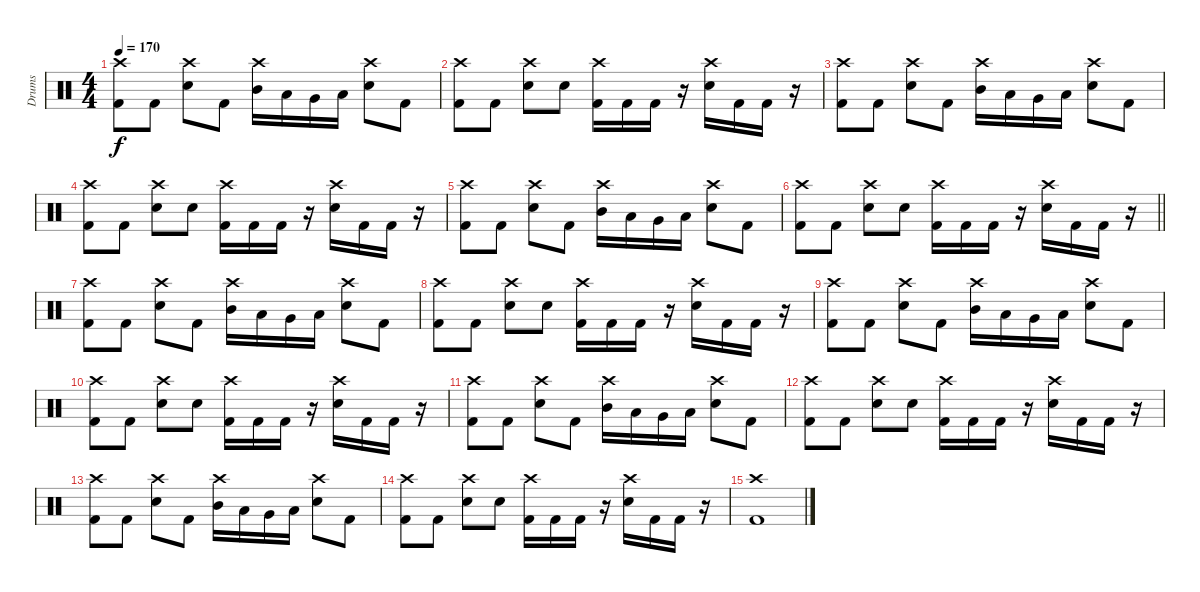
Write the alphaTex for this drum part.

\track ("Drums" "Drums") {instrument percussion}
\staff {score}
\articulation defaults
\ts (4 4)
\tempo 170
\clef neutral
\ks c
("Crash high (hit)" "Kick (hit) 2").8{dy f} "Kick (hit) 2".8 ("Crash high (hit)" "Electric Snare (hit)").8 "Kick (hit) 2".8 ("Crash high (hit)" "Mid Tom (hit)").16 "Low Tom (hit)".16 "Very Low Tom (hit)".16 "Low Tom (hit)".16 ("Crash high (hit)" "Electric Snare (hit)").8 "Kick (hit) 2".8 |
("Crash high (hit)" "Kick (hit) 2").8 "Kick (hit) 2".8 ("Crash high (hit)" "Electric Snare (hit)").8 "Electric Snare (hit)".8 ("Crash high (hit)" "Kick (hit) 2").16 "Kick (hit) 2".16 "Kick (hit) 2".16 r.16 ("Crash high (hit)" "Electric Snare (hit)").16 "Kick (hit) 2".16 "Kick (hit) 2".16 r.16 |
("Crash high (hit)" "Kick (hit) 2").8 "Kick (hit) 2".8 ("Crash high (hit)" "Electric Snare (hit)").8 "Kick (hit) 2".8 ("Crash high (hit)" "Mid Tom (hit)").16 "Low Tom (hit)".16 "Very Low Tom (hit)".16 "Low Tom (hit)".16 ("Crash high (hit)" "Electric Snare (hit)").8 "Kick (hit) 2".8 |
("Crash high (hit)" "Kick (hit) 2").8 "Kick (hit) 2".8 ("Crash high (hit)" "Electric Snare (hit)").8 "Electric Snare (hit)".8 ("Crash high (hit)" "Kick (hit) 2").16 "Kick (hit) 2".16 "Kick (hit) 2".16 r.16 ("Crash high (hit)" "Electric Snare (hit)").16 "Kick (hit) 2".16 "Kick (hit) 2".16 r.16 |
("Crash high (hit)" "Kick (hit) 2").8 "Kick (hit) 2".8 ("Crash high (hit)" "Electric Snare (hit)").8 "Kick (hit) 2".8 ("Crash high (hit)" "Mid Tom (hit)").16 "Low Tom (hit)".16 "Very Low Tom (hit)".16 "Low Tom (hit)".16 ("Crash high (hit)" "Electric Snare (hit)").8 "Kick (hit) 2".8 |
\barLineRight lightlight
("Crash high (hit)" "Kick (hit) 2").8 "Kick (hit) 2".8 ("Crash high (hit)" "Electric Snare (hit)").8 "Electric Snare (hit)".8 ("Crash high (hit)" "Kick (hit) 2").16 "Kick (hit) 2".16 "Kick (hit) 2".16 r.16 ("Crash high (hit)" "Electric Snare (hit)").16 "Kick (hit) 2".16 "Kick (hit) 2".16 r.16 |
("Crash high (hit)" "Kick (hit) 2").8 "Kick (hit) 2".8 ("Crash high (hit)" "Electric Snare (hit)").8 "Kick (hit) 2".8 ("Crash high (hit)" "Mid Tom (hit)").16 "Low Tom (hit)".16 "Very Low Tom (hit)".16 "Low Tom (hit)".16 ("Crash high (hit)" "Electric Snare (hit)").8 "Kick (hit) 2".8 |
("Crash high (hit)" "Kick (hit) 2").8 "Kick (hit) 2".8 ("Crash high (hit)" "Electric Snare (hit)").8 "Electric Snare (hit)".8 ("Crash high (hit)" "Kick (hit) 2").16 "Kick (hit) 2".16 "Kick (hit) 2".16 r.16 ("Crash high (hit)" "Electric Snare (hit)").16 "Kick (hit) 2".16 "Kick (hit) 2".16 r.16 |
("Crash high (hit)" "Kick (hit) 2").8 "Kick (hit) 2".8 ("Crash high (hit)" "Electric Snare (hit)").8 "Kick (hit) 2".8 ("Crash high (hit)" "Mid Tom (hit)").16 "Low Tom (hit)".16 "Very Low Tom (hit)".16 "Low Tom (hit)".16 ("Crash high (hit)" "Electric Snare (hit)").8 "Kick (hit) 2".8 |
("Crash high (hit)" "Kick (hit) 2").8 "Kick (hit) 2".8 ("Crash high (hit)" "Electric Snare (hit)").8 "Electric Snare (hit)".8 ("Crash high (hit)" "Kick (hit) 2").16 "Kick (hit) 2".16 "Kick (hit) 2".16 r.16 ("Crash high (hit)" "Electric Snare (hit)").16 "Kick (hit) 2".16 "Kick (hit) 2".16 r.16 |
("Crash high (hit)" "Kick (hit) 2").8 "Kick (hit) 2".8 ("Crash high (hit)" "Electric Snare (hit)").8 "Kick (hit) 2".8 ("Crash high (hit)" "Mid Tom (hit)").16 "Low Tom (hit)".16 "Very Low Tom (hit)".16 "Low Tom (hit)".16 ("Crash high (hit)" "Electric Snare (hit)").8 "Kick (hit) 2".8 |
("Crash high (hit)" "Kick (hit) 2").8 "Kick (hit) 2".8 ("Crash high (hit)" "Electric Snare (hit)").8 "Electric Snare (hit)".8 ("Crash high (hit)" "Kick (hit) 2").16 "Kick (hit) 2".16 "Kick (hit) 2".16 r.16 ("Crash high (hit)" "Electric Snare (hit)").16 "Kick (hit) 2".16 "Kick (hit) 2".16 r.16 |
("Crash high (hit)" "Kick (hit) 2").8 "Kick (hit) 2".8 ("Crash high (hit)" "Electric Snare (hit)").8 "Kick (hit) 2".8 ("Crash high (hit)" "Mid Tom (hit)").16 "Low Tom (hit)".16 "Very Low Tom (hit)".16 "Low Tom (hit)".16 ("Crash high (hit)" "Electric Snare (hit)").8 "Kick (hit) 2".8 |
("Crash high (hit)" "Kick (hit) 2").8 "Kick (hit) 2".8 ("Crash high (hit)" "Electric Snare (hit)").8 "Electric Snare (hit)".8 ("Crash high (hit)" "Kick (hit) 2").16 "Kick (hit) 2".16 "Kick (hit) 2".16 r.16 ("Crash high (hit)" "Electric Snare (hit)").16 "Kick (hit) 2".16 "Kick (hit) 2".16 r.16 |
("Crash high (hit)" "Kick (hit) 2").1
